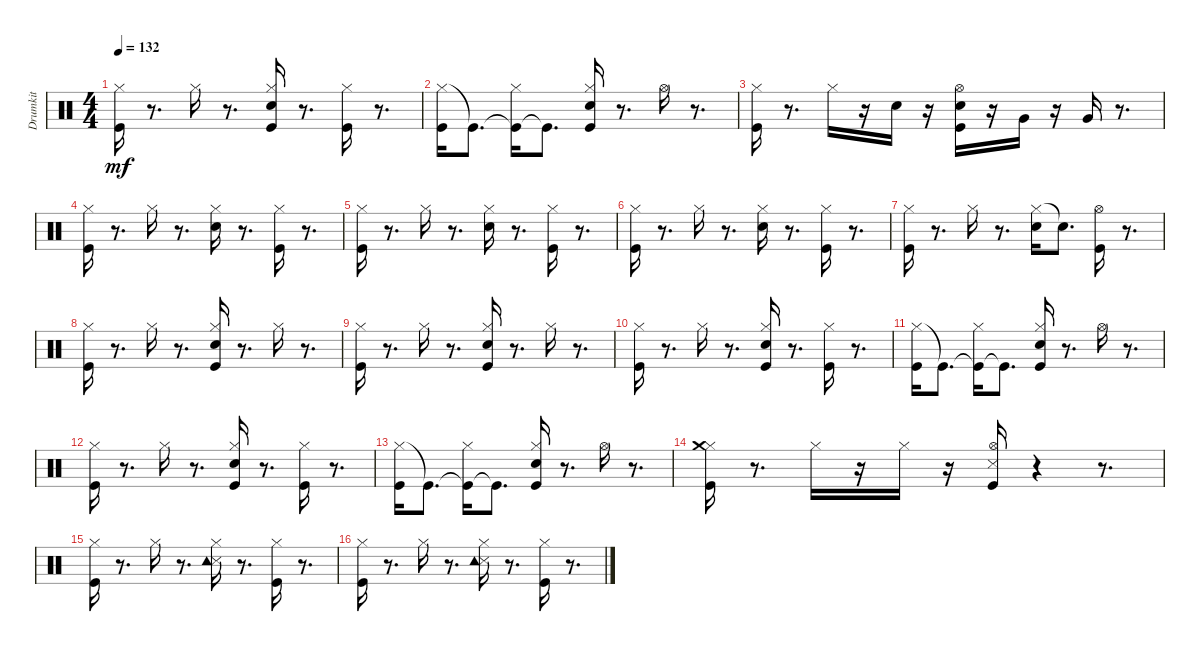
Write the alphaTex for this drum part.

\track ("Drumkit" "Drumkit") {instrument percussion}
\staff {score}
\articulation defaults
\ts (4 4)
\tempo 132
\clef neutral
\ks aminor
("Kick (hit)" "Hi-Hat (closed)").16{dy mf} r.8{d} "Hi-Hat (closed)".16 r.8{d} ("Kick (hit)" "Snare (hit) 2" "Hi-Hat (closed)").16 r.8{d} ("Kick (hit)" "Hi-Hat (closed)").16 r.8{d} |
("Hi-Hat (closed)" "Kick (hit)").16 "Kick (hit)"{t}.8{d} ("Kick (hit)"{t} "Hi-Hat (closed)").16 "Kick (hit)"{t}.8{d} ("Kick (hit)" "Snare (hit) 2" "Hi-Hat (closed)").16 r.8{d} "Hi-Hat (open)".16 r.8{d} |
("Kick (hit)" "Hi-Hat (closed)").16 r.8{d} "Hi-Hat (closed)".16 r.16 "Snare (hit) 2".16 r.16 ("Kick (hit)" "Snare (hit) 2" "Hi-Hat (open)").16 r.16 "Very Low Tom (hit)".16 r.16 "Very Low Tom (hit)".16 r.8{d} |
("Kick (hit)" "Hi-Hat (closed)").16 r.8{d} "Hi-Hat (closed)".16 r.8{d} ("Snare (hit) 2" "Hi-Hat (closed)").16 r.8{d} ("Kick (hit)" "Hi-Hat (closed)").16 r.8{d} |
("Kick (hit)" "Hi-Hat (closed)").16 r.8{d} "Hi-Hat (closed)".16 r.8{d} ("Snare (hit) 2" "Hi-Hat (closed)").16 r.8{d} ("Kick (hit)" "Hi-Hat (closed)").16 r.8{d} |
("Kick (hit)" "Hi-Hat (closed)").16 r.8{d} "Hi-Hat (closed)".16 r.8{d} ("Snare (hit) 2" "Hi-Hat (closed)").16 r.8{d} ("Kick (hit)" "Hi-Hat (closed)").16 r.8{d} |
("Kick (hit)" "Hi-Hat (closed)").16 r.8{d} "Hi-Hat (closed)".16 r.8{d} ("Hi-Hat (closed)" "Snare (hit) 2").16 "Snare (hit) 2"{t}.8{d} ("Kick (hit)" "Hi-Hat (open)").16 r.8{d} |
("Kick (hit)" "Hi-Hat (closed)").16 r.8{d} "Hi-Hat (closed)".16 r.8{d} ("Kick (hit)" "Snare (hit) 2" "Hi-Hat (closed)").16 r.8{d} "Hi-Hat (closed)".16 r.8{d} |
("Kick (hit)" "Hi-Hat (closed)").16 r.8{d} "Hi-Hat (closed)".16 r.8{d} ("Kick (hit)" "Snare (hit) 2" "Hi-Hat (closed)").16 r.8{d} "Hi-Hat (closed)".16 r.8{d} |
("Kick (hit)" "Hi-Hat (closed)").16 r.8{d} "Hi-Hat (closed)".16 r.8{d} ("Kick (hit)" "Snare (hit) 2" "Hi-Hat (closed)").16 r.8{d} ("Kick (hit)" "Hi-Hat (closed)").16 r.8{d} |
("Hi-Hat (closed)" "Kick (hit)").16 "Kick (hit)"{t}.8{d} ("Kick (hit)"{t} "Hi-Hat (closed)").16 "Kick (hit)"{t}.8{d} ("Kick (hit)" "Snare (hit) 2" "Hi-Hat (closed)").16 r.8{d} "Hi-Hat (open)".16 r.8{d} |
("Kick (hit)" "Hi-Hat (closed)").16 r.8{d} "Hi-Hat (closed)".16 r.8{d} ("Kick (hit)" "Snare (hit) 2" "Hi-Hat (closed)").16 r.8{d} ("Kick (hit)" "Hi-Hat (closed)").16 r.8{d} |
("Hi-Hat (closed)" "Kick (hit)").16 "Kick (hit)"{t}.8{d} ("Kick (hit)"{t} "Hi-Hat (closed)").16 "Kick (hit)"{t}.8{d} ("Kick (hit)" "Snare (hit) 2" "Hi-Hat (closed)").16 r.8{d} "Hi-Hat (open)".16 r.8{d} |
("Kick (hit)" "Hi-Hat (closed)" "Crash medium (hit)").16 r.8{d} "Hi-Hat (closed)".16 r.16 "Hi-Hat (closed)".16 r.16 ("Kick (hit)" "Snare (side stick) 3" "Hi-Hat (open)").16 r.4 r.8{d} |
("Kick (hit)" "Hi-Hat (closed)").16 r.8{d} "Hi-Hat (closed)".16 r.8{d} ("Snare (side stick) 3" "Hi-Hat (closed)" "Tambourine (hit)").16 r.8{d} ("Kick (hit)" "Hi-Hat (closed)").16 r.8{d} |
("Kick (hit)" "Hi-Hat (closed)").16 r.8{d} "Hi-Hat (closed)".16 r.8{d} ("Snare (side stick) 3" "Hi-Hat (closed)" "Tambourine (hit)").16 r.8{d} ("Kick (hit)" "Hi-Hat (closed)").16 r.8{d}
